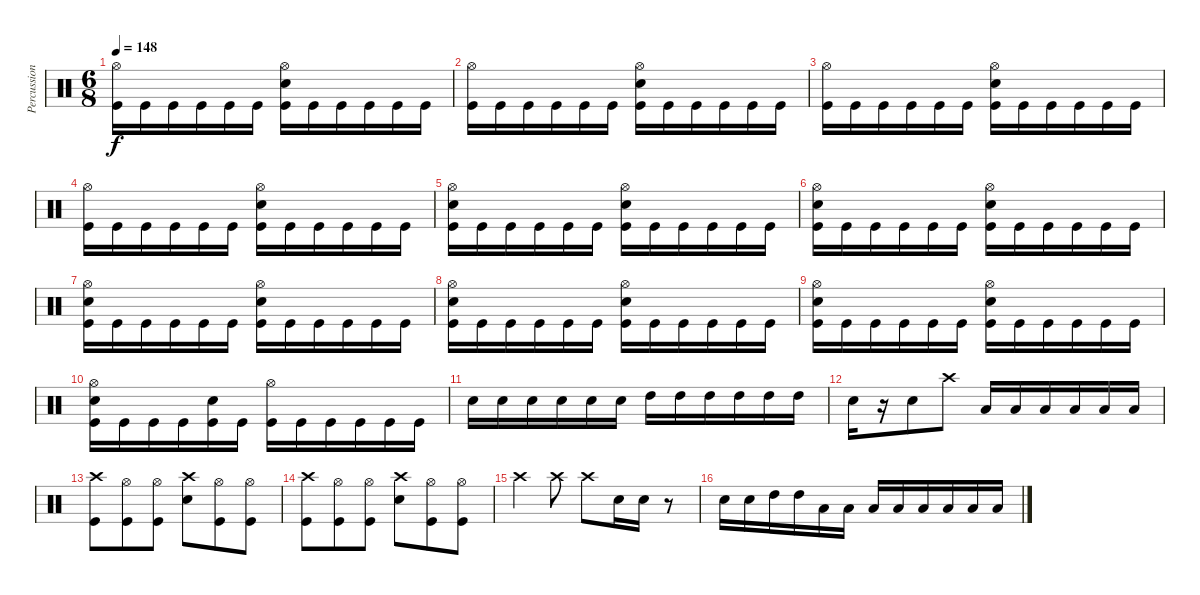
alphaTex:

\track ("Percussion" "Percussion") {instrument percussion}
\staff {score}
\articulation defaults
\ts (6 8)
\tempo 148
\clef neutral
\ks c
("Hi-Hat (open)" "Kick (hit)").16{dy f} "Kick (hit)".16 "Kick (hit)".16 "Kick (hit)".16 "Kick (hit)".16 "Kick (hit)".16 ("Hi-Hat (open)" "Electric Snare (hit)" "Kick (hit)").16 "Kick (hit)".16 "Kick (hit)".16 "Kick (hit)".16 "Kick (hit)".16 "Kick (hit)".16 |
("Hi-Hat (open)" "Kick (hit)").16 "Kick (hit)".16 "Kick (hit)".16 "Kick (hit)".16 "Kick (hit)".16 "Kick (hit)".16 ("Hi-Hat (open)" "Electric Snare (hit)" "Kick (hit)").16 "Kick (hit)".16 "Kick (hit)".16 "Kick (hit)".16 "Kick (hit)".16 "Kick (hit)".16 |
("Hi-Hat (open)" "Kick (hit)").16 "Kick (hit)".16 "Kick (hit)".16 "Kick (hit)".16 "Kick (hit)".16 "Kick (hit)".16 ("Hi-Hat (open)" "Electric Snare (hit)" "Kick (hit)").16 "Kick (hit)".16 "Kick (hit)".16 "Kick (hit)".16 "Kick (hit)".16 "Kick (hit)".16 |
("Hi-Hat (open)" "Kick (hit)").16 "Kick (hit)".16 "Kick (hit)".16 "Kick (hit)".16 "Kick (hit)".16 "Kick (hit)".16 ("Hi-Hat (open)" "Electric Snare (hit)" "Kick (hit)").16 "Kick (hit)".16 "Kick (hit)".16 "Kick (hit)".16 "Kick (hit)".16 "Kick (hit)".16 |
("Hi-Hat (open)" "Electric Snare (hit)" "Kick (hit)").16 "Kick (hit)".16 "Kick (hit)".16 "Kick (hit)".16 "Kick (hit)".16 "Kick (hit)".16 ("Hi-Hat (open)" "Electric Snare (hit)" "Kick (hit)").16 "Kick (hit)".16 "Kick (hit)".16 "Kick (hit)".16 "Kick (hit)".16 "Kick (hit)".16 |
("Hi-Hat (open)" "Electric Snare (hit)" "Kick (hit)").16 "Kick (hit)".16 "Kick (hit)".16 "Kick (hit)".16 "Kick (hit)".16 "Kick (hit)".16 ("Hi-Hat (open)" "Electric Snare (hit)" "Kick (hit)").16 "Kick (hit)".16 "Kick (hit)".16 "Kick (hit)".16 "Kick (hit)".16 "Kick (hit)".16 |
("Hi-Hat (open)" "Electric Snare (hit)" "Kick (hit)").16 "Kick (hit)".16 "Kick (hit)".16 "Kick (hit)".16 "Kick (hit)".16 "Kick (hit)".16 ("Hi-Hat (open)" "Electric Snare (hit)" "Kick (hit)").16 "Kick (hit)".16 "Kick (hit)".16 "Kick (hit)".16 "Kick (hit)".16 "Kick (hit)".16 |
("Hi-Hat (open)" "Electric Snare (hit)" "Kick (hit)").16 "Kick (hit)".16 "Kick (hit)".16 "Kick (hit)".16 "Kick (hit)".16 "Kick (hit)".16 ("Hi-Hat (open)" "Electric Snare (hit)" "Kick (hit)").16 "Kick (hit)".16 "Kick (hit)".16 "Kick (hit)".16 "Kick (hit)".16 "Kick (hit)".16 |
("Hi-Hat (open)" "Electric Snare (hit)" "Kick (hit)").16 "Kick (hit)".16 "Kick (hit)".16 "Kick (hit)".16 "Kick (hit)".16 "Kick (hit)".16 ("Hi-Hat (open)" "Electric Snare (hit)" "Kick (hit)").16 "Kick (hit)".16 "Kick (hit)".16 "Kick (hit)".16 "Kick (hit)".16 "Kick (hit)".16 |
("Hi-Hat (open)" "Electric Snare (hit)" "Kick (hit)").16 "Kick (hit)".16 "Kick (hit)".16 "Kick (hit)".16 ("Electric Snare (hit)" "Kick (hit)").16 "Kick (hit)".16 ("Hi-Hat (open)" "Kick (hit)").16 "Kick (hit)".16 "Kick (hit)".16 "Kick (hit)".16 "Kick (hit)".16 "Kick (hit)".16 |
"Electric Snare (hit)".16 "Electric Snare (hit)".16 "Electric Snare (hit)".16 "Electric Snare (hit)".16 "Electric Snare (hit)".16 "Electric Snare (hit)".16 "High Tom (hit)".16 "High Tom (hit)".16 "High Tom (hit)".16 "High Tom (hit)".16 "High Tom (hit)".16 "High Tom (hit)".16 |
"Electric Snare (hit)".16 r.16 "Electric Snare (hit)".8 "Crash high (hit)".8 "Low Floor Tom (hit)".16 "Low Floor Tom (hit)".16 "Low Floor Tom (hit)".16 "Low Floor Tom (hit)".16 "Low Floor Tom (hit)".16 "Low Floor Tom (hit)".16 |
("Crash high (hit)" "Kick (hit)").8 ("Hi-Hat (open)" "Kick (hit)").8 ("Hi-Hat (open)" "Kick (hit)").8 ("Crash high (hit)" "Electric Snare (hit)").8 ("Hi-Hat (open)" "Kick (hit)").8 ("Hi-Hat (open)" "Kick (hit)").8 |
("Crash high (hit)" "Kick (hit)").8 ("Hi-Hat (open)" "Kick (hit)").8 ("Hi-Hat (open)" "Kick (hit)").8 ("Crash high (hit)" "Electric Snare (hit)").8 ("Hi-Hat (open)" "Kick (hit)").8 ("Hi-Hat (open)" "Kick (hit)").8 |
"Crash high (hit)".4 "Crash high (hit)".8 "Crash high (hit)".8 "Electric Snare (hit)".16 "Electric Snare (hit)".16 r.8 |
"Electric Snare (hit)".16 "Electric Snare (hit)".16 "High Tom (hit)".16 "High Tom (hit)".16 "Low Floor Tom (hit)".16 "Low Floor Tom (hit)".16 "Low Floor Tom (hit)".16 "Low Floor Tom (hit)".16 "Low Floor Tom (hit)".16 "Low Floor Tom (hit)".16 "Low Floor Tom (hit)".16 "Low Floor Tom (hit)".16
